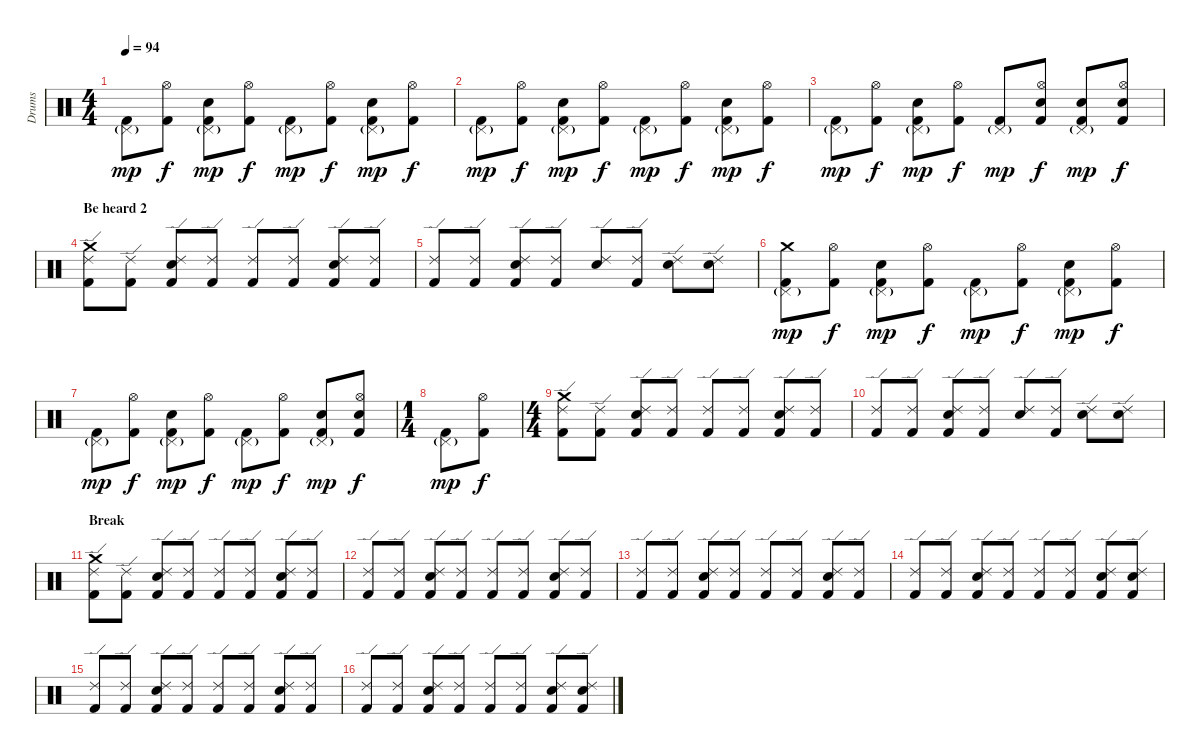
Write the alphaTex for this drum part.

\track ("Drums" "Drums") {instrument percussion}
\staff {score}
\articulation defaults
\ts (4 4)
\tempo 94
\clef neutral
\ks c
("Pedal Hi-Hat (hit)"{g} "Kick (hit) 2").8{dy mp} ("Hi-Hat (open)" "Kick (hit) 2").8{dy f} ("Pedal Hi-Hat (hit)"{g} "Snare (hit) 2" "Kick (hit) 2").8{dy mp} ("Hi-Hat (open)" "Kick (hit) 2").8{dy f} ("Pedal Hi-Hat (hit)"{g} "Kick (hit) 2").8{dy mp} ("Hi-Hat (open)" "Kick (hit) 2").8{dy f} ("Pedal Hi-Hat (hit)"{g} "Snare (hit) 2" "Kick (hit) 2").8{dy mp} ("Hi-Hat (open)" "Kick (hit) 2").8{dy f} |
("Pedal Hi-Hat (hit)"{g} "Kick (hit) 2").8{dy mp} ("Hi-Hat (open)" "Kick (hit) 2").8{dy f} ("Pedal Hi-Hat (hit)"{g} "Snare (hit) 2" "Kick (hit) 2").8{dy mp} ("Hi-Hat (open)" "Kick (hit) 2").8{dy f} ("Pedal Hi-Hat (hit)"{g} "Kick (hit) 2").8{dy mp} ("Hi-Hat (open)" "Kick (hit) 2").8{dy f} ("Pedal Hi-Hat (hit)"{g} "Snare (hit) 2" "Kick (hit) 2").8{dy mp} ("Hi-Hat (open)" "Kick (hit) 2").8{dy f} |
("Pedal Hi-Hat (hit)"{g} "Kick (hit) 2").8{dy mp} ("Hi-Hat (open)" "Kick (hit) 2").8{dy f} ("Pedal Hi-Hat (hit)"{g} "Snare (hit) 2" "Kick (hit) 2").8{dy mp} ("Hi-Hat (open)" "Kick (hit) 2").8{dy f} ("Pedal Hi-Hat (hit)"{g} "Kick (hit) 2").8{dy mp} ("Hi-Hat (open)" "Snare (hit) 2" "Kick (hit) 2").8{dy f} ("Pedal Hi-Hat (hit)"{g} "Snare (hit) 2" "Kick (hit) 2").8{dy mp} ("Hi-Hat (open)" "Snare (hit) 2" "Kick (hit) 2").8{dy f} |
\section ("" "Be heard 2")
("Ride (edge) 2" "Crash medium (hit)" "Kick (hit) 2").8 ("Ride (edge) 2" "Kick (hit) 2").8 ("Ride (edge) 2" "Snare (hit) 2" "Kick (hit) 2").8 ("Ride (edge) 2" "Kick (hit) 2").8 ("Ride (edge) 2" "Kick (hit) 2").8 ("Ride (edge) 2" "Kick (hit) 2").8 ("Ride (edge) 2" "Snare (hit) 2" "Kick (hit) 2").8 ("Ride (edge) 2" "Kick (hit) 2").8 |
("Ride (edge) 2" "Kick (hit) 2").8 ("Ride (edge) 2" "Kick (hit) 2").8 ("Ride (edge) 2" "Snare (hit) 2" "Kick (hit) 2").8 ("Ride (edge) 2" "Kick (hit) 2").8 ("Ride (edge) 2" "Snare (hit) 2").8 ("Ride (edge) 2" "Kick (hit) 2").8 ("Ride (edge) 2" "Snare (hit) 2").8 ("Ride (edge) 2" "Snare (hit) 2").8 |
("Pedal Hi-Hat (hit)"{g} "Crash medium (hit)" "Kick (hit) 2").8{dy mp} ("Hi-Hat (open)" "Kick (hit) 2").8{dy f} ("Pedal Hi-Hat (hit)"{g} "Snare (hit) 2" "Kick (hit) 2").8{dy mp} ("Hi-Hat (open)" "Kick (hit) 2").8{dy f} ("Pedal Hi-Hat (hit)"{g} "Kick (hit) 2").8{dy mp} ("Hi-Hat (open)" "Kick (hit) 2").8{dy f} ("Pedal Hi-Hat (hit)"{g} "Snare (hit) 2" "Kick (hit) 2").8{dy mp} ("Hi-Hat (open)" "Kick (hit) 2").8{dy f} |
("Pedal Hi-Hat (hit)"{g} "Kick (hit) 2").8{dy mp} ("Hi-Hat (open)" "Kick (hit) 2").8{dy f} ("Pedal Hi-Hat (hit)"{g} "Snare (hit) 2" "Kick (hit) 2").8{dy mp} ("Hi-Hat (open)" "Kick (hit) 2").8{dy f} ("Pedal Hi-Hat (hit)"{g} "Kick (hit) 2").8{dy mp} ("Hi-Hat (open)" "Kick (hit) 2").8{dy f} ("Pedal Hi-Hat (hit)"{g} "Snare (hit) 2" "Kick (hit) 2").8{dy mp} ("Hi-Hat (open)" "Snare (hit) 2" "Kick (hit) 2").8{dy f} |
\ts (1 4)
("Pedal Hi-Hat (hit)"{g} "Kick (hit) 2").8{dy mp} ("Hi-Hat (open)" "Kick (hit) 2").8{dy f} |
\ts (4 4)
("Ride (edge) 2" "Crash medium (hit)" "Kick (hit) 2").8 ("Ride (edge) 2" "Kick (hit) 2").8 ("Ride (edge) 2" "Snare (hit) 2" "Kick (hit) 2").8 ("Ride (edge) 2" "Kick (hit) 2").8 ("Ride (edge) 2" "Kick (hit) 2").8 ("Ride (edge) 2" "Kick (hit) 2").8 ("Ride (edge) 2" "Snare (hit) 2" "Kick (hit) 2").8 ("Ride (edge) 2" "Kick (hit) 2").8 |
("Ride (edge) 2" "Kick (hit) 2").8 ("Ride (edge) 2" "Kick (hit) 2").8 ("Ride (edge) 2" "Snare (hit) 2" "Kick (hit) 2").8 ("Ride (edge) 2" "Kick (hit) 2").8 ("Ride (edge) 2" "Snare (hit) 2").8 ("Ride (edge) 2" "Kick (hit) 2").8 ("Ride (edge) 2" "Snare (hit) 2").8 ("Ride (edge) 2" "Snare (hit) 2").8 |
\section ("" "Break")
("Ride (edge) 2" "Crash medium (hit)" "Kick (hit) 2").8 ("Ride (edge) 2" "Kick (hit) 2").8 ("Ride (edge) 2" "Snare (hit) 2" "Kick (hit) 2").8 ("Ride (edge) 2" "Kick (hit) 2").8 ("Ride (edge) 2" "Kick (hit) 2").8 ("Ride (edge) 2" "Kick (hit) 2").8 ("Ride (edge) 2" "Snare (hit) 2" "Kick (hit) 2").8 ("Ride (edge) 2" "Kick (hit) 2").8 |
("Ride (edge) 2" "Kick (hit) 2").8 ("Ride (edge) 2" "Kick (hit) 2").8 ("Ride (edge) 2" "Snare (hit) 2" "Kick (hit) 2").8 ("Ride (edge) 2" "Kick (hit) 2").8 ("Ride (edge) 2" "Kick (hit) 2").8 ("Ride (edge) 2" "Kick (hit) 2").8 ("Ride (edge) 2" "Snare (hit) 2" "Kick (hit) 2").8 ("Ride (edge) 2" "Kick (hit) 2").8 |
("Ride (edge) 2" "Kick (hit) 2").8 ("Ride (edge) 2" "Kick (hit) 2").8 ("Ride (edge) 2" "Snare (hit) 2" "Kick (hit) 2").8 ("Ride (edge) 2" "Kick (hit) 2").8 ("Ride (edge) 2" "Kick (hit) 2").8 ("Ride (edge) 2" "Kick (hit) 2").8 ("Ride (edge) 2" "Snare (hit) 2" "Kick (hit) 2").8 ("Ride (edge) 2" "Kick (hit) 2").8 |
("Ride (edge) 2" "Kick (hit) 2").8 ("Ride (edge) 2" "Kick (hit) 2").8 ("Ride (edge) 2" "Snare (hit) 2" "Kick (hit) 2").8 ("Ride (edge) 2" "Kick (hit) 2").8 ("Ride (edge) 2" "Kick (hit) 2").8 ("Ride (edge) 2" "Kick (hit) 2").8 ("Ride (edge) 2" "Snare (hit) 2" "Kick (hit) 2").8 ("Ride (edge) 2" "Snare (hit) 2" "Kick (hit) 2").8 |
("Ride (edge) 2" "Kick (hit) 2").8 ("Ride (edge) 2" "Kick (hit) 2").8 ("Ride (edge) 2" "Snare (hit) 2" "Kick (hit) 2").8 ("Ride (edge) 2" "Kick (hit) 2").8 ("Ride (edge) 2" "Kick (hit) 2").8 ("Ride (edge) 2" "Kick (hit) 2").8 ("Ride (edge) 2" "Snare (hit) 2" "Kick (hit) 2").8 ("Ride (edge) 2" "Kick (hit) 2").8 |
("Ride (edge) 2" "Kick (hit) 2").8 ("Ride (edge) 2" "Kick (hit) 2").8 ("Ride (edge) 2" "Snare (hit) 2" "Kick (hit) 2").8 ("Ride (edge) 2" "Kick (hit) 2").8 ("Ride (edge) 2" "Kick (hit) 2").8 ("Ride (edge) 2" "Kick (hit) 2").8 ("Ride (edge) 2" "Snare (hit) 2" "Kick (hit) 2").8 ("Ride (edge) 2" "Snare (hit) 2" "Kick (hit) 2").8
